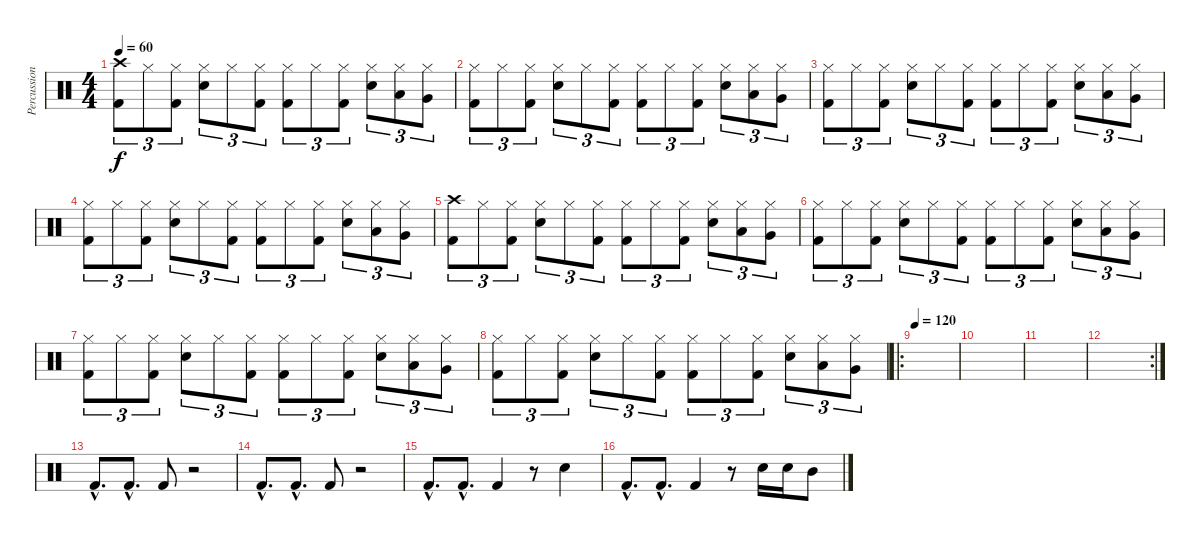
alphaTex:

\track ("Percussion" "Percussion") {instrument percussion}
\staff {score}
\articulation defaults
\ts (4 4)
\tempo 60
\clef neutral
\ks c
("Crash high (hit)" "Kick (hit) 2").8{tu (3 2) dy f} "Hi-Hat (closed)".8{tu (3 2)} ("Hi-Hat (closed)" "Kick (hit) 2").8{tu (3 2)} ("Hi-Hat (closed)" "Snare (hit) 2").8{tu (3 2)} "Hi-Hat (closed)".8{tu (3 2)} ("Hi-Hat (closed)" "Kick (hit) 2").8{tu (3 2)} ("Hi-Hat (closed)" "Kick (hit) 2").8{tu (3 2)} "Hi-Hat (closed)".8{tu (3 2)} ("Hi-Hat (closed)" "Kick (hit) 2").8{tu (3 2)} ("Hi-Hat (closed)" "Snare (hit) 2").8{tu (3 2)} ("Hi-Hat (closed)" "Low Tom (hit)").8{tu (3 2)} ("Hi-Hat (closed)" "Very Low Tom (hit)").8{tu (3 2)} |
("Hi-Hat (closed)" "Kick (hit) 2").8{tu (3 2)} "Hi-Hat (closed)".8{tu (3 2)} ("Hi-Hat (closed)" "Kick (hit) 2").8{tu (3 2)} ("Hi-Hat (closed)" "Snare (hit) 2").8{tu (3 2)} "Hi-Hat (closed)".8{tu (3 2)} ("Hi-Hat (closed)" "Kick (hit) 2").8{tu (3 2)} ("Hi-Hat (closed)" "Kick (hit) 2").8{tu (3 2)} "Hi-Hat (closed)".8{tu (3 2)} ("Hi-Hat (closed)" "Kick (hit) 2").8{tu (3 2)} ("Hi-Hat (closed)" "Snare (hit) 2").8{tu (3 2)} ("Hi-Hat (closed)" "Low Tom (hit)").8{tu (3 2)} ("Hi-Hat (closed)" "Very Low Tom (hit)").8{tu (3 2)} |
("Hi-Hat (closed)" "Kick (hit) 2").8{tu (3 2)} "Hi-Hat (closed)".8{tu (3 2)} ("Hi-Hat (closed)" "Kick (hit) 2").8{tu (3 2)} ("Hi-Hat (closed)" "Snare (hit) 2").8{tu (3 2)} "Hi-Hat (closed)".8{tu (3 2)} ("Hi-Hat (closed)" "Kick (hit) 2").8{tu (3 2)} ("Hi-Hat (closed)" "Kick (hit) 2").8{tu (3 2)} "Hi-Hat (closed)".8{tu (3 2)} ("Hi-Hat (closed)" "Kick (hit) 2").8{tu (3 2)} ("Hi-Hat (closed)" "Snare (hit) 2").8{tu (3 2)} ("Hi-Hat (closed)" "Low Tom (hit)").8{tu (3 2)} ("Hi-Hat (closed)" "Very Low Tom (hit)").8{tu (3 2)} |
("Hi-Hat (closed)" "Kick (hit) 2").8{tu (3 2)} "Hi-Hat (closed)".8{tu (3 2)} ("Hi-Hat (closed)" "Kick (hit) 2").8{tu (3 2)} ("Hi-Hat (closed)" "Snare (hit) 2").8{tu (3 2)} "Hi-Hat (closed)".8{tu (3 2)} ("Hi-Hat (closed)" "Kick (hit) 2").8{tu (3 2)} ("Hi-Hat (closed)" "Kick (hit) 2").8{tu (3 2)} "Hi-Hat (closed)".8{tu (3 2)} ("Hi-Hat (closed)" "Kick (hit) 2").8{tu (3 2)} ("Hi-Hat (closed)" "Snare (hit) 2").8{tu (3 2)} ("Hi-Hat (closed)" "Low Tom (hit)").8{tu (3 2)} ("Hi-Hat (closed)" "Very Low Tom (hit)").8{tu (3 2)} |
("Crash high (hit)" "Kick (hit) 2").8{tu (3 2)} "Hi-Hat (closed)".8{tu (3 2)} ("Hi-Hat (closed)" "Kick (hit) 2").8{tu (3 2)} ("Hi-Hat (closed)" "Snare (hit) 2").8{tu (3 2)} "Hi-Hat (closed)".8{tu (3 2)} ("Hi-Hat (closed)" "Kick (hit) 2").8{tu (3 2)} ("Hi-Hat (closed)" "Kick (hit) 2").8{tu (3 2)} "Hi-Hat (closed)".8{tu (3 2)} ("Hi-Hat (closed)" "Kick (hit) 2").8{tu (3 2)} ("Hi-Hat (closed)" "Snare (hit) 2").8{tu (3 2)} ("Hi-Hat (closed)" "Low Tom (hit)").8{tu (3 2)} ("Hi-Hat (closed)" "Very Low Tom (hit)").8{tu (3 2)} |
("Hi-Hat (closed)" "Kick (hit) 2").8{tu (3 2)} "Hi-Hat (closed)".8{tu (3 2)} ("Hi-Hat (closed)" "Kick (hit) 2").8{tu (3 2)} ("Hi-Hat (closed)" "Snare (hit) 2").8{tu (3 2)} "Hi-Hat (closed)".8{tu (3 2)} ("Hi-Hat (closed)" "Kick (hit) 2").8{tu (3 2)} ("Hi-Hat (closed)" "Kick (hit) 2").8{tu (3 2)} "Hi-Hat (closed)".8{tu (3 2)} ("Hi-Hat (closed)" "Kick (hit) 2").8{tu (3 2)} ("Hi-Hat (closed)" "Snare (hit) 2").8{tu (3 2)} ("Hi-Hat (closed)" "Low Tom (hit)").8{tu (3 2)} ("Hi-Hat (closed)" "Very Low Tom (hit)").8{tu (3 2)} |
("Hi-Hat (closed)" "Kick (hit) 2").8{tu (3 2)} "Hi-Hat (closed)".8{tu (3 2)} ("Hi-Hat (closed)" "Kick (hit) 2").8{tu (3 2)} ("Hi-Hat (closed)" "Snare (hit) 2").8{tu (3 2)} "Hi-Hat (closed)".8{tu (3 2)} ("Hi-Hat (closed)" "Kick (hit) 2").8{tu (3 2)} ("Hi-Hat (closed)" "Kick (hit) 2").8{tu (3 2)} "Hi-Hat (closed)".8{tu (3 2)} ("Hi-Hat (closed)" "Kick (hit) 2").8{tu (3 2)} ("Hi-Hat (closed)" "Snare (hit) 2").8{tu (3 2)} ("Hi-Hat (closed)" "Low Tom (hit)").8{tu (3 2)} ("Hi-Hat (closed)" "Very Low Tom (hit)").8{tu (3 2)} |
("Hi-Hat (closed)" "Kick (hit) 2").8{tu (3 2)} "Hi-Hat (closed)".8{tu (3 2)} ("Hi-Hat (closed)" "Kick (hit) 2").8{tu (3 2)} ("Hi-Hat (closed)" "Snare (hit) 2").8{tu (3 2)} "Hi-Hat (closed)".8{tu (3 2)} ("Hi-Hat (closed)" "Kick (hit) 2").8{tu (3 2)} ("Hi-Hat (closed)" "Kick (hit) 2").8{tu (3 2)} "Hi-Hat (closed)".8{tu (3 2)} ("Hi-Hat (closed)" "Kick (hit) 2").8{tu (3 2)} ("Hi-Hat (closed)" "Snare (hit) 2").8{tu (3 2)} ("Hi-Hat (closed)" "Low Tom (hit)").8{tu (3 2)} ("Hi-Hat (closed)" "Very Low Tom (hit)").8{tu (3 2)} |
\ro
\tempo 120
|
|
|
\rc 2
|
"Kick (hit) 2"{hac}.8{d} "Kick (hit) 2"{hac}.8{d} "Kick (hit) 2".8 r.2 |
"Kick (hit) 2"{hac}.8{d} "Kick (hit) 2"{hac}.8{d} "Kick (hit) 2".8 r.2 |
"Kick (hit) 2"{hac}.8{d} "Kick (hit) 2"{hac}.8{d} "Kick (hit) 2".4 r.8 "Snare (hit) 2".4 |
"Kick (hit) 2"{hac}.8{d} "Kick (hit) 2"{hac}.8{d} "Kick (hit) 2".4 r.8 "Snare (hit) 2".16 "Snare (hit) 2".16 "Mid Tom (hit)".8
